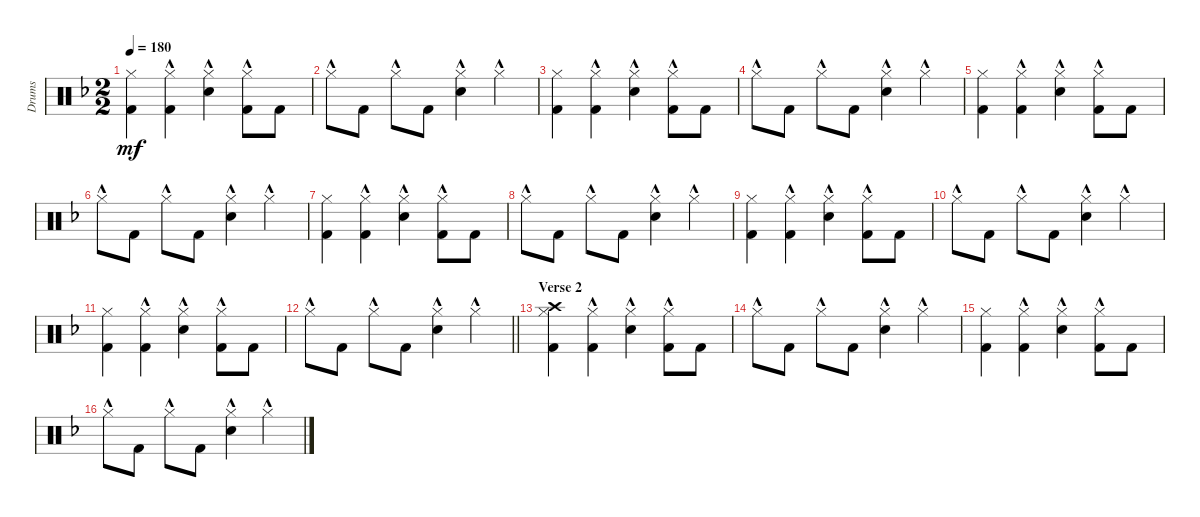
\track ("Drums" "Drums") {instrument percussion}
\staff {score}
\articulation defaults
\ts (2 2)
\tempo 180
\clef neutral
\ks dminor
("Hi-Hat (closed)" "Kick (hit) 2").4{dy mf} ("Hi-Hat (closed)"{hac} "Kick (hit) 2").4 ("Hi-Hat (closed)"{hac} "Snare (hit) 2").4 ("Hi-Hat (closed)"{hac} "Kick (hit) 2").8 "Kick (hit) 2".8 |
"Hi-Hat (closed)"{hac}.8 "Kick (hit) 2".8 "Hi-Hat (closed)"{hac}.8 "Kick (hit) 2".8 ("Hi-Hat (closed)"{hac} "Snare (hit) 2").4 "Hi-Hat (closed)"{hac}.4 |
("Hi-Hat (closed)" "Kick (hit) 2").4 ("Hi-Hat (closed)"{hac} "Kick (hit) 2").4 ("Hi-Hat (closed)"{hac} "Snare (hit) 2").4 ("Hi-Hat (closed)"{hac} "Kick (hit) 2").8 "Kick (hit) 2".8 |
"Hi-Hat (closed)"{hac}.8 "Kick (hit) 2".8 "Hi-Hat (closed)"{hac}.8 "Kick (hit) 2".8 ("Hi-Hat (closed)"{hac} "Snare (hit) 2").4 "Hi-Hat (closed)"{hac}.4 |
("Hi-Hat (closed)" "Kick (hit) 2").4 ("Hi-Hat (closed)"{hac} "Kick (hit) 2").4 ("Hi-Hat (closed)"{hac} "Snare (hit) 2").4 ("Hi-Hat (closed)"{hac} "Kick (hit) 2").8 "Kick (hit) 2".8 |
"Hi-Hat (closed)"{hac}.8 "Kick (hit) 2".8 "Hi-Hat (closed)"{hac}.8 "Kick (hit) 2".8 ("Hi-Hat (closed)"{hac} "Snare (hit) 2").4 "Hi-Hat (closed)"{hac}.4 |
("Hi-Hat (closed)" "Kick (hit) 2").4 ("Hi-Hat (closed)"{hac} "Kick (hit) 2").4 ("Hi-Hat (closed)"{hac} "Snare (hit) 2").4 ("Hi-Hat (closed)"{hac} "Kick (hit) 2").8 "Kick (hit) 2".8 |
"Hi-Hat (closed)"{hac}.8 "Kick (hit) 2".8 "Hi-Hat (closed)"{hac}.8 "Kick (hit) 2".8 ("Hi-Hat (closed)"{hac} "Snare (hit) 2").4 "Hi-Hat (closed)"{hac}.4 |
("Hi-Hat (closed)" "Kick (hit) 2").4 ("Hi-Hat (closed)"{hac} "Kick (hit) 2").4 ("Hi-Hat (closed)"{hac} "Snare (hit) 2").4 ("Hi-Hat (closed)"{hac} "Kick (hit) 2").8 "Kick (hit) 2".8 |
"Hi-Hat (closed)"{hac}.8 "Kick (hit) 2".8 "Hi-Hat (closed)"{hac}.8 "Kick (hit) 2".8 ("Hi-Hat (closed)"{hac} "Snare (hit) 2").4 "Hi-Hat (closed)"{hac}.4 |
("Hi-Hat (closed)" "Kick (hit) 2").4 ("Hi-Hat (closed)"{hac} "Kick (hit) 2").4 ("Hi-Hat (closed)"{hac} "Snare (hit) 2").4 ("Hi-Hat (closed)"{hac} "Kick (hit) 2").8 "Kick (hit) 2".8 |
\barLineRight lightlight "Hi-Hat (closed)"{hac}.8 "Kick (hit) 2".8 "Hi-Hat (closed)"{hac}.8 "Kick (hit) 2".8
("Hi-Hat (closed)"{hac} "Snare (hit) 2").4 "Hi-Hat (closed)"{hac}.4 |
\section ("" "Verse 2")
("Hi-Hat (closed)" "Kick (hit) 2" "Crash high (hit)").4 ("Hi-Hat (closed)"{hac} "Kick (hit) 2").4 ("Hi-Hat (closed)"{hac} "Snare (hit) 2").4 ("Hi-Hat (closed)"{hac} "Kick (hit) 2").8 "Kick (hit) 2".8 |
"Hi-Hat (closed)"{hac}.8 "Kick (hit) 2".8 "Hi-Hat (closed)"{hac}.8 "Kick (hit) 2".8 ("Hi-Hat (closed)"{hac} "Snare (hit) 2").4 "Hi-Hat (closed)"{hac}.4 |
("Hi-Hat (closed)" "Kick (hit) 2").4 ("Hi-Hat (closed)"{hac} "Kick (hit) 2").4 ("Hi-Hat (closed)"{hac} "Snare (hit) 2").4 ("Hi-Hat (closed)"{hac} "Kick (hit) 2").8 "Kick (hit) 2".8 |
"Hi-Hat (closed)"{hac}.8 "Kick (hit) 2".8 "Hi-Hat (closed)"{hac}.8 "Kick (hit) 2".8 ("Hi-Hat (closed)"{hac} "Snare (hit) 2").4 "Hi-Hat (closed)"{hac}.4
